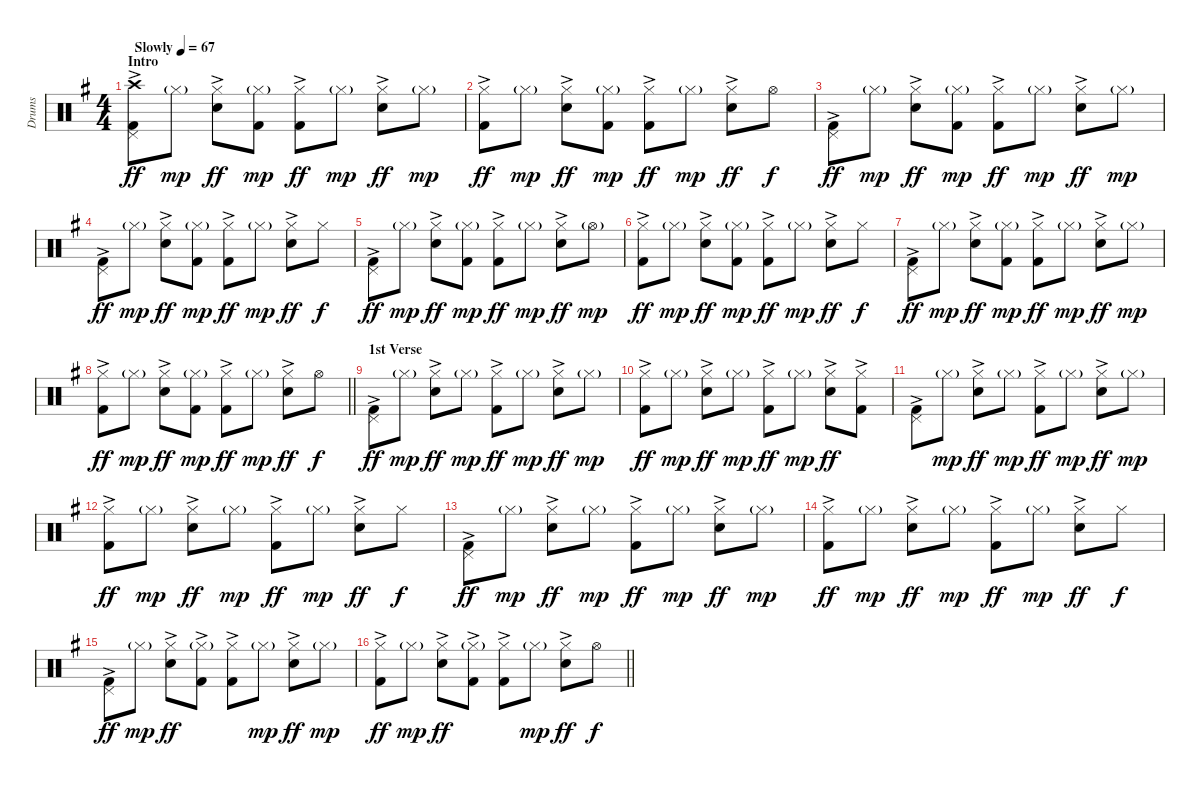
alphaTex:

\track ("Drums" "Drums") {instrument percussion}
\staff {score}
\articulation defaults
\ts (4 4)
\section ("" "Intro")
\tempo (67 "Slowly")
\clef neutral
\ks g
("Pedal Hi-Hat (hit)" "Crash high (hit)" "Kick (hit) 2"{ac}).8{dy ff} "Hi-Hat (closed)"{g}.8{dy mp} ("Hi-Hat (closed)" "Snare (hit) 2"{ac}).8{dy ff} ("Hi-Hat (closed)"{g} "Kick (hit) 2").8{dy mp} ("Hi-Hat (closed)" "Kick (hit) 2"{ac}).8{dy ff} "Hi-Hat (closed)"{g}.8{dy mp} ("Hi-Hat (closed)" "Snare (hit) 2"{ac}).8{dy ff} "Hi-Hat (closed)"{g}.8{dy mp} |
("Hi-Hat (closed)" "Kick (hit) 2"{ac}).8{dy ff} "Hi-Hat (closed)"{g}.8{dy mp} ("Hi-Hat (closed)" "Snare (hit) 2"{ac}).8{dy ff} ("Hi-Hat (closed)"{g} "Kick (hit) 2").8{dy mp} ("Hi-Hat (closed)" "Kick (hit) 2"{ac}).8{dy ff} "Hi-Hat (closed)"{g}.8{dy mp} ("Hi-Hat (closed)" "Snare (hit) 2"{ac}).8{dy ff} "Hi-Hat (open)".8{dy f} |
("Pedal Hi-Hat (hit)" "Kick (hit) 2"{ac}).8{dy ff} "Hi-Hat (closed)"{g}.8{dy mp} ("Hi-Hat (closed)" "Snare (hit) 2"{ac}).8{dy ff} ("Hi-Hat (closed)"{g} "Kick (hit) 2").8{dy mp} ("Hi-Hat (closed)" "Kick (hit) 2"{ac}).8{dy ff} "Hi-Hat (closed)"{g}.8{dy mp} ("Hi-Hat (closed)" "Snare (hit) 2"{ac}).8{dy ff} "Hi-Hat (closed)"{g}.8{dy mp} |
("Pedal Hi-Hat (hit)" "Kick (hit) 2"{ac}).8{dy ff} "Hi-Hat (closed)"{g}.8{dy mp} ("Hi-Hat (closed)" "Snare (hit) 2"{ac}).8{dy ff} ("Hi-Hat (closed)"{g} "Kick (hit) 2").8{dy mp} ("Hi-Hat (closed)" "Kick (hit) 2"{ac}).8{dy ff} "Hi-Hat (closed)"{g}.8{dy mp} ("Hi-Hat (closed)" "Snare (hit) 2"{ac}).8{dy ff} "Hi-Hat (closed)".8{dy f} |
("Pedal Hi-Hat (hit)" "Kick (hit) 2"{ac}).8{dy ff} "Hi-Hat (closed)"{g}.8{dy mp} ("Hi-Hat (closed)" "Snare (hit) 2"{ac}).8{dy ff} ("Hi-Hat (closed)"{g} "Kick (hit) 2").8{dy mp} ("Hi-Hat (closed)" "Kick (hit) 2"{ac}).8{dy ff} "Hi-Hat (closed)"{g}.8{dy mp} ("Hi-Hat (closed)" "Snare (hit) 2"{ac}).8{dy ff} "Hi-Hat (open)"{g}.8{dy mp} |
("Hi-Hat (closed)" "Kick (hit) 2"{ac}).8{dy ff} "Hi-Hat (closed)"{g}.8{dy mp} ("Hi-Hat (closed)" "Snare (hit) 2"{ac}).8{dy ff} ("Hi-Hat (closed)"{g} "Kick (hit) 2").8{dy mp} ("Hi-Hat (closed)" "Kick (hit) 2"{ac}).8{dy ff} "Hi-Hat (closed)"{g}.8{dy mp} ("Hi-Hat (closed)" "Snare (hit) 2"{ac}).8{dy ff} "Hi-Hat (closed)".8{dy f} |
("Pedal Hi-Hat (hit)" "Kick (hit) 2"{ac}).8{dy ff} "Hi-Hat (closed)"{g}.8{dy mp} ("Hi-Hat (closed)" "Snare (hit) 2"{ac}).8{dy ff} ("Hi-Hat (closed)"{g} "Kick (hit) 2").8{dy mp} ("Hi-Hat (closed)" "Kick (hit) 2"{ac}).8{dy ff} "Hi-Hat (closed)"{g}.8{dy mp} ("Hi-Hat (closed)" "Snare (hit) 2"{ac}).8{dy ff} "Hi-Hat (closed)"{g}.8{dy mp} |
\barLineRight lightlight
("Hi-Hat (closed)" "Kick (hit) 2"{ac}).8{dy ff} "Hi-Hat (closed)"{g}.8{dy mp} ("Hi-Hat (closed)" "Snare (hit) 2"{ac}).8{dy ff} ("Hi-Hat (closed)"{g} "Kick (hit) 2").8{dy mp} ("Hi-Hat (closed)" "Kick (hit) 2"{ac}).8{dy ff} "Hi-Hat (closed)"{g}.8{dy mp} ("Hi-Hat (closed)" "Snare (hit) 2"{ac}).8{dy ff} "Hi-Hat (open)".8{dy f} |
\section ("" "1st Verse")
("Pedal Hi-Hat (hit)" "Kick (hit) 2"{ac}).8{dy ff} "Hi-Hat (closed)"{g}.8{dy mp} ("Hi-Hat (closed)" "Snare (hit) 2"{ac}).8{dy ff} "Hi-Hat (closed)"{g}.8{dy mp} ("Hi-Hat (closed)" "Kick (hit) 2"{ac}).8{dy ff} "Hi-Hat (closed)"{g}.8{dy mp} ("Hi-Hat (closed)" "Snare (hit) 2"{ac}).8{dy ff} "Hi-Hat (closed)"{g}.8{dy mp} |
("Hi-Hat (closed)" "Kick (hit) 2"{ac}).8{dy ff} "Hi-Hat (closed)"{g}.8{dy mp} ("Hi-Hat (closed)" "Snare (hit) 2"{ac}).8{dy ff} "Hi-Hat (closed)"{g}.8{dy mp} ("Hi-Hat (closed)" "Kick (hit) 2"{ac}).8{dy ff} "Hi-Hat (closed)"{g}.8{dy mp} ("Hi-Hat (closed)" "Snare (hit) 2"{ac}).8{dy ff} ("Hi-Hat (closed)" "Kick (hit) 2"{ac}).8 |
("Pedal Hi-Hat (hit)" "Kick (hit) 2"{ac}).8 "Hi-Hat (closed)"{g}.8{dy mp} ("Hi-Hat (closed)" "Snare (hit) 2"{ac}).8{dy ff} "Hi-Hat (closed)"{g}.8{dy mp} ("Hi-Hat (closed)" "Kick (hit) 2"{ac}).8{dy ff} "Hi-Hat (closed)"{g}.8{dy mp} ("Hi-Hat (closed)" "Snare (hit) 2"{ac}).8{dy ff} "Hi-Hat (closed)"{g}.8{dy mp} |
("Hi-Hat (closed)" "Kick (hit) 2"{ac}).8{dy ff} "Hi-Hat (closed)"{g}.8{dy mp} ("Hi-Hat (closed)" "Snare (hit) 2"{ac}).8{dy ff} "Hi-Hat (closed)"{g}.8{dy mp} ("Hi-Hat (closed)" "Kick (hit) 2"{ac}).8{dy ff} "Hi-Hat (closed)"{g}.8{dy mp} ("Hi-Hat (closed)" "Snare (hit) 2"{ac}).8{dy ff} "Hi-Hat (closed)".8{dy f} |
("Pedal Hi-Hat (hit)" "Kick (hit) 2"{ac}).8{dy ff} "Hi-Hat (closed)"{g}.8{dy mp} ("Hi-Hat (closed)" "Snare (hit) 2"{ac}).8{dy ff} "Hi-Hat (closed)"{g}.8{dy mp} ("Hi-Hat (closed)" "Kick (hit) 2"{ac}).8{dy ff} "Hi-Hat (closed)"{g}.8{dy mp} ("Hi-Hat (closed)" "Snare (hit) 2"{ac}).8{dy ff} "Hi-Hat (closed)"{g}.8{dy mp} |
("Hi-Hat (closed)" "Kick (hit) 2"{ac}).8{dy ff} "Hi-Hat (closed)"{g}.8{dy mp} ("Hi-Hat (closed)" "Snare (hit) 2"{ac}).8{dy ff} "Hi-Hat (closed)"{g}.8{dy mp} ("Hi-Hat (closed)" "Kick (hit) 2"{ac}).8{dy ff} "Hi-Hat (closed)"{g}.8{dy mp} ("Hi-Hat (closed)" "Snare (hit) 2"{ac}).8{dy ff} "Hi-Hat (closed)".8{dy f} |
("Pedal Hi-Hat (hit)" "Kick (hit) 2"{ac}).8{dy ff} "Hi-Hat (closed)"{g}.8{dy mp} ("Hi-Hat (closed)" "Snare (hit) 2"{ac}).8{dy ff} ("Hi-Hat (closed)"{g} "Kick (hit) 2"{ac}).8 ("Hi-Hat (closed)" "Kick (hit) 2"{ac}).8 "Hi-Hat (closed)"{g}.8{dy mp} ("Hi-Hat (closed)" "Snare (hit) 2"{ac}).8{dy ff} "Hi-Hat (closed)"{g}.8{dy mp} |
\barLineRight lightlight
("Hi-Hat (closed)" "Kick (hit) 2"{ac}).8{dy ff} "Hi-Hat (closed)"{g}.8{dy mp} ("Hi-Hat (closed)" "Snare (hit) 2"{ac}).8{dy ff} ("Hi-Hat (closed)"{g} "Kick (hit) 2"{ac}).8 ("Hi-Hat (closed)" "Kick (hit) 2"{ac}).8 "Hi-Hat (closed)"{g}.8{dy mp} ("Hi-Hat (closed)" "Snare (hit) 2"{ac}).8{dy ff} "Hi-Hat (open)".8{dy f}
